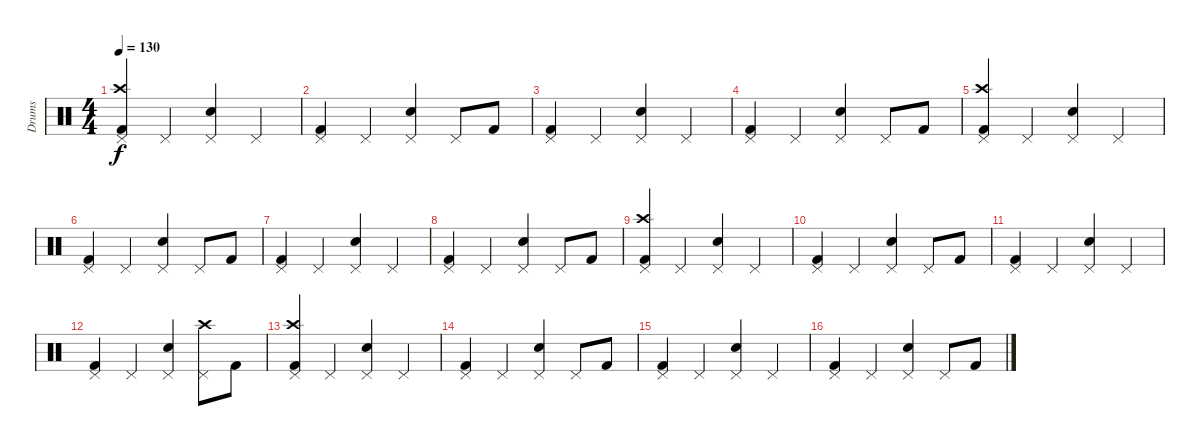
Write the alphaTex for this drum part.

\track ("Drums" "Drums") {instrument percussion}
\staff {score}
\articulation defaults
\ts (4 4)
\tempo 130
\clef neutral
\ks c
("Pedal Hi-Hat (hit)" "Crash high (hit)" "Kick (hit) 2").4{dy f} "Pedal Hi-Hat (hit)".4 ("Pedal Hi-Hat (hit)" "Snare (hit) 2").4 "Pedal Hi-Hat (hit)".4 |
("Pedal Hi-Hat (hit)" "Kick (hit) 2").4 "Pedal Hi-Hat (hit)".4 ("Pedal Hi-Hat (hit)" "Snare (hit) 2").4 "Pedal Hi-Hat (hit)".8 "Kick (hit) 2".8 |
("Pedal Hi-Hat (hit)" "Kick (hit) 2").4 "Pedal Hi-Hat (hit)".4 ("Pedal Hi-Hat (hit)" "Snare (hit) 2").4 "Pedal Hi-Hat (hit)".4 |
("Pedal Hi-Hat (hit)" "Kick (hit) 2").4 "Pedal Hi-Hat (hit)".4 ("Pedal Hi-Hat (hit)" "Snare (hit) 2").4 "Pedal Hi-Hat (hit)".8 "Kick (hit) 2".8 |
("Pedal Hi-Hat (hit)" "Crash high (hit)" "Kick (hit) 2").4 "Pedal Hi-Hat (hit)".4 ("Pedal Hi-Hat (hit)" "Snare (hit) 2").4 "Pedal Hi-Hat (hit)".4 |
("Pedal Hi-Hat (hit)" "Kick (hit) 2").4 "Pedal Hi-Hat (hit)".4 ("Pedal Hi-Hat (hit)" "Snare (hit) 2").4 "Pedal Hi-Hat (hit)".8 "Kick (hit) 2".8 |
("Pedal Hi-Hat (hit)" "Kick (hit) 2").4 "Pedal Hi-Hat (hit)".4 ("Pedal Hi-Hat (hit)" "Snare (hit) 2").4 "Pedal Hi-Hat (hit)".4 |
("Pedal Hi-Hat (hit)" "Kick (hit) 2").4 "Pedal Hi-Hat (hit)".4 ("Pedal Hi-Hat (hit)" "Snare (hit) 2").4 "Pedal Hi-Hat (hit)".8 "Kick (hit) 2".8 |
("Pedal Hi-Hat (hit)" "Crash high (hit)" "Kick (hit) 2").4 "Pedal Hi-Hat (hit)".4 ("Pedal Hi-Hat (hit)" "Snare (hit) 2").4 "Pedal Hi-Hat (hit)".4 |
("Pedal Hi-Hat (hit)" "Kick (hit) 2").4 "Pedal Hi-Hat (hit)".4 ("Pedal Hi-Hat (hit)" "Snare (hit) 2").4 "Pedal Hi-Hat (hit)".8 "Kick (hit) 2".8 |
("Pedal Hi-Hat (hit)" "Kick (hit) 2").4 "Pedal Hi-Hat (hit)".4 ("Pedal Hi-Hat (hit)" "Snare (hit) 2").4 "Pedal Hi-Hat (hit)".4 |
("Pedal Hi-Hat (hit)" "Kick (hit) 2").4 "Pedal Hi-Hat (hit)".4 ("Pedal Hi-Hat (hit)" "Snare (hit) 2").4 ("Pedal Hi-Hat (hit)" "Crash high (hit)").8 "Kick (hit) 2".8 |
("Pedal Hi-Hat (hit)" "Crash high (hit)" "Kick (hit) 2").4 "Pedal Hi-Hat (hit)".4 ("Pedal Hi-Hat (hit)" "Snare (hit) 2").4 "Pedal Hi-Hat (hit)".4 |
("Pedal Hi-Hat (hit)" "Kick (hit) 2").4 "Pedal Hi-Hat (hit)".4 ("Pedal Hi-Hat (hit)" "Snare (hit) 2").4 "Pedal Hi-Hat (hit)".8 "Kick (hit) 2".8 |
("Pedal Hi-Hat (hit)" "Kick (hit) 2").4 "Pedal Hi-Hat (hit)".4 ("Pedal Hi-Hat (hit)" "Snare (hit) 2").4 "Pedal Hi-Hat (hit)".4 |
("Pedal Hi-Hat (hit)" "Kick (hit) 2").4 "Pedal Hi-Hat (hit)".4 ("Pedal Hi-Hat (hit)" "Snare (hit) 2").4 "Pedal Hi-Hat (hit)".8 "Kick (hit) 2".8
